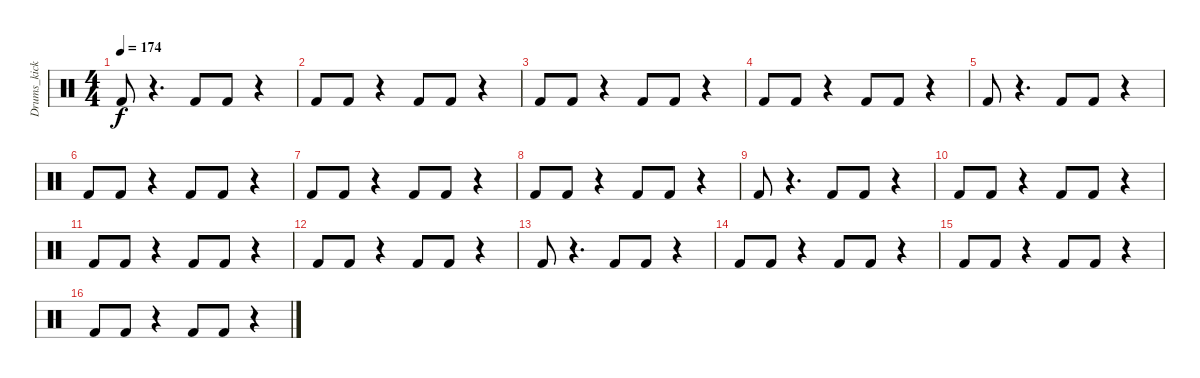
\track ("Drums_kick" "Drums_kick") {instrument percussion}
\staff {score}
\articulation defaults
\ts (4 4)
\tempo 174
\clef neutral
\ks c "Kick (hit) 2".8{dy f}
r.4{d} "Kick (hit) 2".8 "Kick (hit) 2".8 r.4 |
"Kick (hit) 2".8 "Kick (hit) 2".8 r.4 "Kick (hit) 2".8 "Kick (hit) 2".8 r.4 |
"Kick (hit) 2".8 "Kick (hit) 2".8 r.4 "Kick (hit) 2".8 "Kick (hit) 2".8 r.4 |
"Kick (hit) 2".8 "Kick (hit) 2".8 r.4 "Kick (hit) 2".8 "Kick (hit) 2".8 r.4 |
"Kick (hit) 2".8 r.4{d} "Kick (hit) 2".8 "Kick (hit) 2".8 r.4 |
"Kick (hit) 2".8 "Kick (hit) 2".8 r.4 "Kick (hit) 2".8 "Kick (hit) 2".8 r.4 |
"Kick (hit) 2".8 "Kick (hit) 2".8 r.4 "Kick (hit) 2".8 "Kick (hit) 2".8 r.4 |
"Kick (hit) 2".8 "Kick (hit) 2".8 r.4 "Kick (hit) 2".8 "Kick (hit) 2".8 r.4 |
"Kick (hit) 2".8 r.4{d} "Kick (hit) 2".8 "Kick (hit) 2".8 r.4 |
"Kick (hit) 2".8 "Kick (hit) 2".8 r.4 "Kick (hit) 2".8 "Kick (hit) 2".8 r.4 |
"Kick (hit) 2".8 "Kick (hit) 2".8 r.4 "Kick (hit) 2".8 "Kick (hit) 2".8 r.4 |
"Kick (hit) 2".8 "Kick (hit) 2".8 r.4 "Kick (hit) 2".8 "Kick (hit) 2".8 r.4 |
"Kick (hit) 2".8 r.4{d} "Kick (hit) 2".8 "Kick (hit) 2".8 r.4 |
"Kick (hit) 2".8 "Kick (hit) 2".8 r.4 "Kick (hit) 2".8 "Kick (hit) 2".8 r.4 |
"Kick (hit) 2".8 "Kick (hit) 2".8 r.4 "Kick (hit) 2".8 "Kick (hit) 2".8 r.4 |
"Kick (hit) 2".8 "Kick (hit) 2".8 r.4 "Kick (hit) 2".8 "Kick (hit) 2".8 r.4
